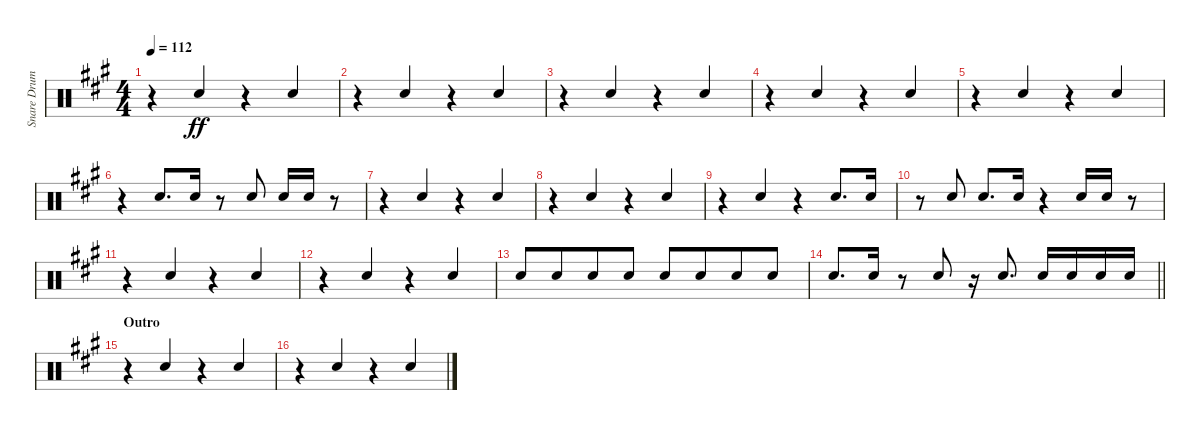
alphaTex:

\track ("Snare Drum" "Snare Drum") {instrument percussion}
\staff {score}
\articulation defaults
\ts (4 4)
\tempo 112
\clef neutral
\ks f#minor
r.4{dy ff} "Electric Snare (hit)".4{beam Up} r.4 "Electric Snare (hit)".4{beam Up} |
r.4 "Electric Snare (hit)".4{beam Up} r.4 "Electric Snare (hit)".4{beam Up} |
r.4 "Electric Snare (hit)".4{beam Up} r.4 "Electric Snare (hit)".4{beam Up} |
r.4 "Electric Snare (hit)".4{beam Up} r.4 "Electric Snare (hit)".4{beam Up} |
r.4 "Electric Snare (hit)".4{beam Up} r.4 "Electric Snare (hit)".4{beam Up} |
r.4 "Electric Snare (hit)".8{d beam Up} "Electric Snare (hit)".16{beam Up} r.8 "Electric Snare (hit)".8{beam Up} "Electric Snare (hit)".16{beam Up} "Electric Snare (hit)".16{beam Up} r.8 |
r.4 "Electric Snare (hit)".4{beam Up} r.4 "Electric Snare (hit)".4{beam Up} |
r.4 "Electric Snare (hit)".4{beam Up} r.4 "Electric Snare (hit)".4{beam Up} |
r.4 "Electric Snare (hit)".4{beam Up} r.4 "Electric Snare (hit)".8{d beam Up} "Electric Snare (hit)".16{beam Up} |
r.8 "Electric Snare (hit)".8{beam Up} "Electric Snare (hit)".8{d beam Up} "Electric Snare (hit)".16{beam Up} r.4 "Electric Snare (hit)".16{beam Up} "Electric Snare (hit)".16{beam Up} r.8 |
r.4 "Electric Snare (hit)".4{beam Up} r.4 "Electric Snare (hit)".4{beam Up} |
r.4 "Electric Snare (hit)".4{beam Up} r.4 "Electric Snare (hit)".4{beam Up} |
"Electric Snare (hit)".8{beam Up} "Electric Snare (hit)".8{volume 2 beam Up beam merge} "Electric Snare (hit)".8{beam Up} "Electric Snare (hit)".8{beam Up} "Electric Snare (hit)".8{volume 13 beam Up} "Electric Snare (hit)".8{beam Up beam merge} "Electric Snare (hit)".8{beam Up} "Electric Snare (hit)".8{beam Up} |
\barLineRight lightlight "Electric Snare (hit)".8{d beam Up} "Electric Snare (hit)".16{beam Up}
r.8 "Electric Snare (hit)".8{beam Up} r.16 "Electric Snare (hit)".8{d beam Up} "Electric Snare (hit)".16{beam Up} "Electric Snare (hit)".16{beam Up} "Electric Snare (hit)".16{beam Up} "Electric Snare (hit)".16{beam Up} |
\section ("" "Outro")
r.4 "Electric Snare (hit)".4{beam Up} r.4 "Electric Snare (hit)".4{beam Up} |
r.4 "Electric Snare (hit)".4{beam Up} r.4 "Electric Snare (hit)".4{beam Up}
